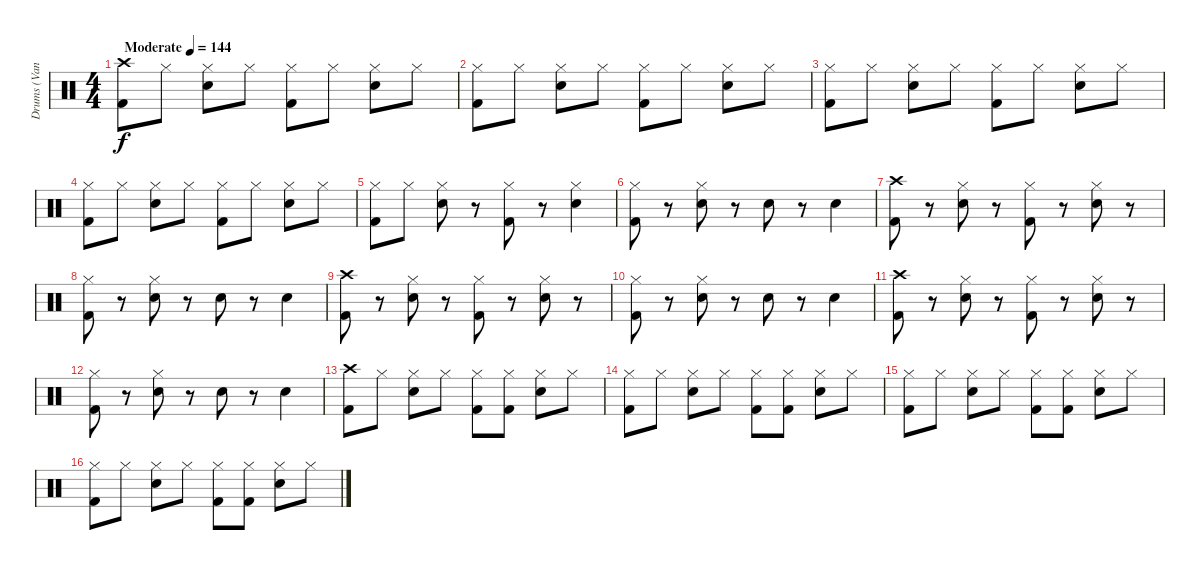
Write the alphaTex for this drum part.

\track ("Drums (Vandel)" "Drums (Van") {instrument percussion}
\staff {score}
\articulation defaults
\ts (4 4)
\tempo (144 "Moderate")
\clef neutral
\ks c
("Crash high (hit)" "Kick (hit) 2").8{dy f} "Hi-Hat (closed)".8 ("Hi-Hat (closed)" "Snare (hit) 2").8 "Hi-Hat (closed)".8 ("Hi-Hat (closed)" "Kick (hit) 2").8 "Hi-Hat (closed)".8 ("Hi-Hat (closed)" "Snare (hit) 2").8 "Hi-Hat (closed)".8 |
("Hi-Hat (closed)" "Kick (hit) 2").8 "Hi-Hat (closed)".8 ("Hi-Hat (closed)" "Snare (hit) 2").8 "Hi-Hat (closed)".8 ("Hi-Hat (closed)" "Kick (hit) 2").8 "Hi-Hat (closed)".8 ("Hi-Hat (closed)" "Snare (hit) 2").8 "Hi-Hat (closed)".8 |
("Hi-Hat (closed)" "Kick (hit) 2").8 "Hi-Hat (closed)".8 ("Hi-Hat (closed)" "Snare (hit) 2").8 "Hi-Hat (closed)".8 ("Hi-Hat (closed)" "Kick (hit) 2").8 "Hi-Hat (closed)".8 ("Hi-Hat (closed)" "Snare (hit) 2").8 "Hi-Hat (closed)".8 |
("Hi-Hat (closed)" "Kick (hit) 2").8 "Hi-Hat (closed)".8 ("Hi-Hat (closed)" "Snare (hit) 2").8 "Hi-Hat (closed)".8 ("Hi-Hat (closed)" "Kick (hit) 2").8 "Hi-Hat (closed)".8 ("Hi-Hat (closed)" "Snare (hit) 2").8 "Hi-Hat (closed)".8 |
("Hi-Hat (closed)" "Kick (hit) 2").8 "Hi-Hat (closed)".8 ("Hi-Hat (closed)" "Snare (hit) 2").8 r.8 ("Hi-Hat (closed)" "Kick (hit) 2").8 r.8 ("Hi-Hat (closed)" "Snare (hit) 2").4 |
("Hi-Hat (closed)" "Kick (hit) 2").8 r.8 ("Hi-Hat (closed)" "Snare (hit) 2").8 r.8 "Snare (hit) 2".8 r.8 "Snare (hit) 2".4 |
("Crash high (hit)" "Kick (hit) 2").8 r.8 ("Hi-Hat (closed)" "Snare (hit) 2").8 r.8 ("Hi-Hat (closed)" "Kick (hit) 2").8 r.8 ("Hi-Hat (closed)" "Snare (hit) 2").8 r.8 |
("Hi-Hat (closed)" "Kick (hit) 2").8 r.8 ("Hi-Hat (closed)" "Snare (hit) 2").8 r.8 "Snare (hit) 2".8 r.8 "Snare (hit) 2".4 |
("Crash high (hit)" "Kick (hit) 2").8 r.8 ("Hi-Hat (closed)" "Snare (hit) 2").8 r.8 ("Hi-Hat (closed)" "Kick (hit) 2").8 r.8 ("Hi-Hat (closed)" "Snare (hit) 2").8 r.8 |
("Hi-Hat (closed)" "Kick (hit) 2").8 r.8 ("Hi-Hat (closed)" "Snare (hit) 2").8 r.8 "Snare (hit) 2".8 r.8 "Snare (hit) 2".4 |
("Crash high (hit)" "Kick (hit) 2").8 r.8 ("Hi-Hat (closed)" "Snare (hit) 2").8 r.8 ("Hi-Hat (closed)" "Kick (hit) 2").8 r.8 ("Hi-Hat (closed)" "Snare (hit) 2").8 r.8 |
("Hi-Hat (closed)" "Kick (hit) 2").8 r.8 ("Hi-Hat (closed)" "Snare (hit) 2").8 r.8 "Snare (hit) 2".8 r.8 "Snare (hit) 2".4 |
("Crash high (hit)" "Kick (hit) 2").8 "Hi-Hat (closed)".8 ("Hi-Hat (closed)" "Snare (hit) 2").8 "Hi-Hat (closed)".8 ("Hi-Hat (closed)" "Kick (hit) 2").8 ("Hi-Hat (closed)" "Kick (hit) 2").8 ("Hi-Hat (closed)" "Snare (hit) 2").8 "Hi-Hat (closed)".8 |
("Hi-Hat (closed)" "Kick (hit) 2").8 "Hi-Hat (closed)".8 ("Hi-Hat (closed)" "Snare (hit) 2").8 "Hi-Hat (closed)".8 ("Hi-Hat (closed)" "Kick (hit) 2").8 ("Hi-Hat (closed)" "Kick (hit) 2").8 ("Hi-Hat (closed)" "Snare (hit) 2").8 "Hi-Hat (closed)".8 |
("Hi-Hat (closed)" "Kick (hit) 2").8 "Hi-Hat (closed)".8 ("Hi-Hat (closed)" "Snare (hit) 2").8 "Hi-Hat (closed)".8 ("Hi-Hat (closed)" "Kick (hit) 2").8 ("Hi-Hat (closed)" "Kick (hit) 2").8 ("Hi-Hat (closed)" "Snare (hit) 2").8 "Hi-Hat (closed)".8 |
("Hi-Hat (closed)" "Kick (hit) 2").8 "Hi-Hat (closed)".8 ("Hi-Hat (closed)" "Snare (hit) 2").8 "Hi-Hat (closed)".8 ("Hi-Hat (closed)" "Kick (hit) 2").8 ("Hi-Hat (closed)" "Kick (hit) 2").8 ("Hi-Hat (closed)" "Snare (hit) 2").8 "Hi-Hat (closed)".8
